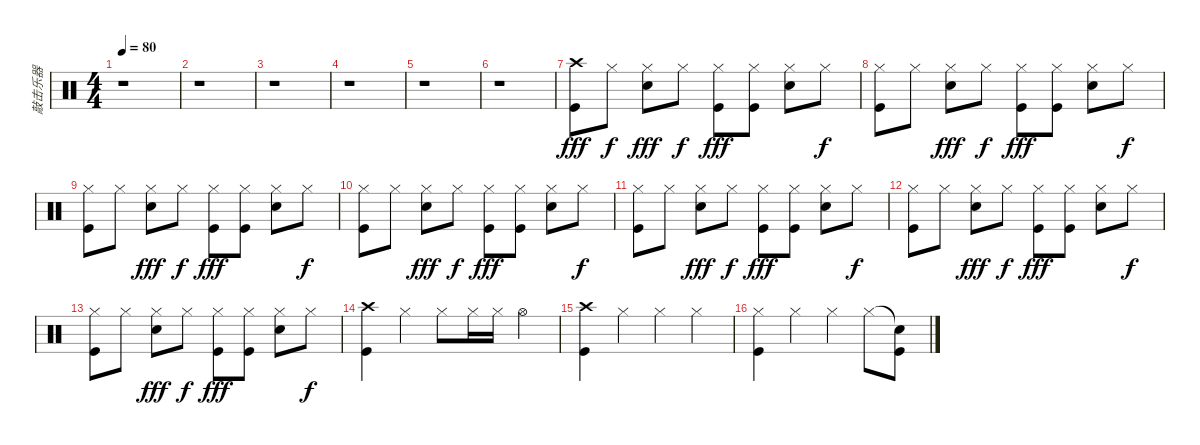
\track ("敲击乐器" "敲击乐器") {instrument percussion}
\staff {score}
\articulation defaults
\ts (4 4)
\tempo 80
\clef neutral
\ks c
r.1{dy fff} |
r.1 |
r.1 |
r.1 |
r.1 |
r.1 |
("Crash high (hit)" "Kick (hit)").8 "Hi-Hat (closed)".8{dy f} ("Hi-Hat (closed)" "Snare (hit) 2").8{dy fff} "Hi-Hat (closed)".8{dy f} ("Hi-Hat (closed)" "Kick (hit)").8{dy fff} ("Hi-Hat (closed)" "Kick (hit)").8 ("Hi-Hat (closed)" "Snare (hit) 2").8 "Hi-Hat (closed)".8{dy f} |
("Hi-Hat (closed)" "Kick (hit)").8 "Hi-Hat (closed)".8 ("Hi-Hat (closed)" "Snare (hit) 2").8{dy fff} "Hi-Hat (closed)".8{dy f} ("Hi-Hat (closed)" "Kick (hit)").8{dy fff} ("Hi-Hat (closed)" "Kick (hit)").8 ("Hi-Hat (closed)" "Snare (hit) 2").8 "Hi-Hat (closed)".8{dy f} |
("Hi-Hat (closed)" "Kick (hit)").8 "Hi-Hat (closed)".8 ("Hi-Hat (closed)" "Snare (hit) 2").8{dy fff} "Hi-Hat (closed)".8{dy f} ("Hi-Hat (closed)" "Kick (hit)").8{dy fff} ("Hi-Hat (closed)" "Kick (hit)").8 ("Hi-Hat (closed)" "Snare (hit) 2").8 "Hi-Hat (closed)".8{dy f} |
("Hi-Hat (closed)" "Kick (hit)").8 "Hi-Hat (closed)".8 ("Hi-Hat (closed)" "Snare (hit) 2").8{dy fff} "Hi-Hat (closed)".8{dy f} ("Hi-Hat (closed)" "Kick (hit)").8{dy fff} ("Hi-Hat (closed)" "Kick (hit)").8 ("Hi-Hat (closed)" "Snare (hit) 2").8 "Hi-Hat (closed)".8{dy f} |
("Hi-Hat (closed)" "Kick (hit)").8 "Hi-Hat (closed)".8 ("Hi-Hat (closed)" "Snare (hit) 2").8{dy fff} "Hi-Hat (closed)".8{dy f} ("Hi-Hat (closed)" "Kick (hit)").8{dy fff} ("Hi-Hat (closed)" "Kick (hit)").8 ("Hi-Hat (closed)" "Snare (hit) 2").8 "Hi-Hat (closed)".8{dy f} |
("Hi-Hat (closed)" "Kick (hit)").8 "Hi-Hat (closed)".8 ("Hi-Hat (closed)" "Snare (hit) 2").8{dy fff} "Hi-Hat (closed)".8{dy f} ("Hi-Hat (closed)" "Kick (hit)").8{dy fff} ("Hi-Hat (closed)" "Kick (hit)").8 ("Hi-Hat (closed)" "Snare (hit) 2").8 "Hi-Hat (closed)".8{dy f} |
("Hi-Hat (closed)" "Kick (hit)").8 "Hi-Hat (closed)".8 ("Hi-Hat (closed)" "Snare (hit) 2").8{dy fff} "Hi-Hat (closed)".8{dy f} ("Hi-Hat (closed)" "Kick (hit)").8{dy fff} ("Hi-Hat (closed)" "Kick (hit)").8 ("Hi-Hat (closed)" "Snare (hit) 2").8 "Hi-Hat (closed)".8{dy f} |
("Crash high (hit)" "Kick (hit)").4 "Hi-Hat (closed)".4 "Hi-Hat (closed)".8 "Hi-Hat (closed)".16 "Hi-Hat (closed)".16 "Hi-Hat (open)".4 |
("Crash high (hit)" "Kick (hit)").4 "Hi-Hat (closed)".4 "Hi-Hat (closed)".4 "Hi-Hat (closed)".4 |
("Hi-Hat (closed)" "Kick (hit)").4 "Hi-Hat (closed)".4 "Hi-Hat (closed)".4 "Hi-Hat (closed)".8 ("Snare (hit)"{t} "Kick (hit)").8
